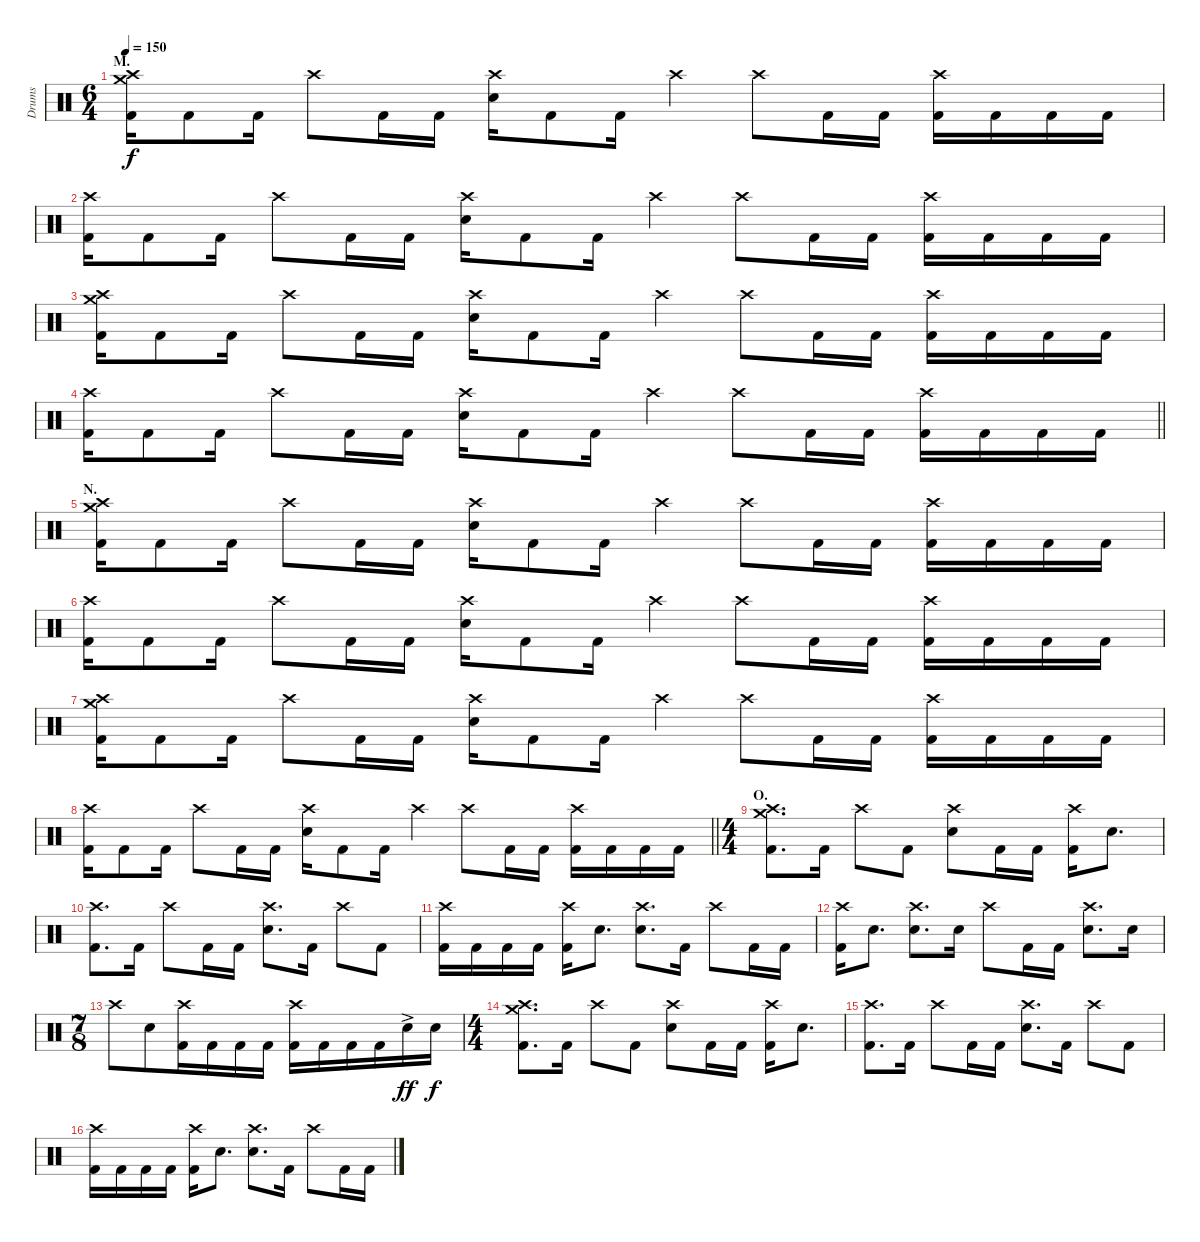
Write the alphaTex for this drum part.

\track ("Drums" "Drums") {instrument percussion}
\staff {score}
\articulation defaults
\ts (6 4)
\section ("" "M.")
\tempo 150
\clef neutral
\ks c
("Crash medium (hit)" "Crash high (hit)" "Kick (hit) 2").16{dy f} "Kick (hit) 2".8 "Kick (hit) 2".16 "Crash high (hit)".8 "Kick (hit) 2".16 "Kick (hit) 2".16 ("Crash high (hit)" "Electric Snare (hit)").16 "Kick (hit) 2".8 "Kick (hit) 2".16 "Crash high (hit)".4 "Crash high (hit)".8 "Kick (hit) 2".16 "Kick (hit) 2".16 ("Crash high (hit)" "Kick (hit) 2").16 "Kick (hit) 2".16 "Kick (hit) 2".16 "Kick (hit) 2".16 |
("Crash high (hit)" "Kick (hit) 2").16 "Kick (hit) 2".8 "Kick (hit) 2".16 "Crash high (hit)".8 "Kick (hit) 2".16 "Kick (hit) 2".16 ("Crash high (hit)" "Electric Snare (hit)").16 "Kick (hit) 2".8 "Kick (hit) 2".16 "Crash high (hit)".4 "Crash high (hit)".8 "Kick (hit) 2".16 "Kick (hit) 2".16 ("Crash high (hit)" "Kick (hit) 2").16 "Kick (hit) 2".16 "Kick (hit) 2".16 "Kick (hit) 2".16 |
("Crash medium (hit)" "Crash high (hit)" "Kick (hit) 2").16 "Kick (hit) 2".8 "Kick (hit) 2".16 "Crash high (hit)".8 "Kick (hit) 2".16 "Kick (hit) 2".16 ("Crash high (hit)" "Electric Snare (hit)").16 "Kick (hit) 2".8 "Kick (hit) 2".16 "Crash high (hit)".4 "Crash high (hit)".8 "Kick (hit) 2".16 "Kick (hit) 2".16 ("Crash high (hit)" "Kick (hit) 2").16 "Kick (hit) 2".16 "Kick (hit) 2".16 "Kick (hit) 2".16 |
\barLineRight lightlight
("Crash high (hit)" "Kick (hit) 2").16 "Kick (hit) 2".8 "Kick (hit) 2".16 "Crash high (hit)".8 "Kick (hit) 2".16 "Kick (hit) 2".16 ("Crash high (hit)" "Electric Snare (hit)").16 "Kick (hit) 2".8 "Kick (hit) 2".16 "Crash high (hit)".4 "Crash high (hit)".8 "Kick (hit) 2".16 "Kick (hit) 2".16 ("Crash high (hit)" "Kick (hit) 2").16 "Kick (hit) 2".16 "Kick (hit) 2".16 "Kick (hit) 2".16 |
\section ("" "N.")
("Crash medium (hit)" "Crash high (hit)" "Kick (hit) 2").16 "Kick (hit) 2".8 "Kick (hit) 2".16 "Crash high (hit)".8 "Kick (hit) 2".16 "Kick (hit) 2".16 ("Crash high (hit)" "Electric Snare (hit)").16 "Kick (hit) 2".8 "Kick (hit) 2".16 "Crash high (hit)".4 "Crash high (hit)".8 "Kick (hit) 2".16 "Kick (hit) 2".16 ("Crash high (hit)" "Kick (hit) 2").16 "Kick (hit) 2".16 "Kick (hit) 2".16 "Kick (hit) 2".16 |
("Crash high (hit)" "Kick (hit) 2").16 "Kick (hit) 2".8 "Kick (hit) 2".16 "Crash high (hit)".8 "Kick (hit) 2".16 "Kick (hit) 2".16 ("Crash high (hit)" "Electric Snare (hit)").16 "Kick (hit) 2".8 "Kick (hit) 2".16 "Crash high (hit)".4 "Crash high (hit)".8 "Kick (hit) 2".16 "Kick (hit) 2".16 ("Crash high (hit)" "Kick (hit) 2").16 "Kick (hit) 2".16 "Kick (hit) 2".16 "Kick (hit) 2".16 |
("Crash medium (hit)" "Crash high (hit)" "Kick (hit) 2").16 "Kick (hit) 2".8 "Kick (hit) 2".16 "Crash high (hit)".8 "Kick (hit) 2".16 "Kick (hit) 2".16 ("Crash high (hit)" "Electric Snare (hit)").16 "Kick (hit) 2".8 "Kick (hit) 2".16 "Crash high (hit)".4 "Crash high (hit)".8 "Kick (hit) 2".16 "Kick (hit) 2".16 ("Crash high (hit)" "Kick (hit) 2").16 "Kick (hit) 2".16 "Kick (hit) 2".16 "Kick (hit) 2".16 |
\barLineRight lightlight
("Crash high (hit)" "Kick (hit) 2").16 "Kick (hit) 2".8 "Kick (hit) 2".16 "Crash high (hit)".8 "Kick (hit) 2".16 "Kick (hit) 2".16 ("Crash high (hit)" "Electric Snare (hit)").16 "Kick (hit) 2".8 "Kick (hit) 2".16 "Crash high (hit)".4 "Crash high (hit)".8 "Kick (hit) 2".16 "Kick (hit) 2".16 ("Crash high (hit)" "Kick (hit) 2").16 "Kick (hit) 2".16 "Kick (hit) 2".16 "Kick (hit) 2".16 |
\ts (4 4)
\section ("" "O.")
("Crash medium (hit)" "Crash high (hit)" "Kick (hit) 2").8{d} "Kick (hit) 2".16 "Crash high (hit)".8 "Kick (hit) 2".8 ("Crash high (hit)" "Electric Snare (hit)").8 "Kick (hit) 2".16 "Kick (hit) 2".16 ("Crash high (hit)" "Kick (hit) 2").16 "Electric Snare (hit)".8{d} |
("Crash high (hit)" "Kick (hit) 2").8{d} "Kick (hit) 2".16 "Crash high (hit)".8 "Kick (hit) 2".16 "Kick (hit) 2".16 ("Crash high (hit)" "Electric Snare (hit)").8{d} "Kick (hit) 2".16 "Crash high (hit)".8 "Kick (hit) 2".8 |
("Crash high (hit)" "Kick (hit) 2").16 "Kick (hit) 2".16 "Kick (hit) 2".16 "Kick (hit) 2".16 ("Crash high (hit)" "Kick (hit) 2").16 "Electric Snare (hit)".8{d} ("Crash high (hit)" "Electric Snare (hit)").8{d} "Kick (hit) 2".16 "Crash high (hit)".8 "Kick (hit) 2".16 "Kick (hit) 2".16 |
("Crash high (hit)" "Kick (hit) 2").16 "Electric Snare (hit)".8{d} ("Crash high (hit)" "Electric Snare (hit)").8{d} "Electric Snare (hit)".16 "Crash high (hit)".8 "Kick (hit) 2".16 "Kick (hit) 2".16 ("Crash high (hit)" "Electric Snare (hit)").8{d} "Electric Snare (hit)".16 |
\ts (7 8)
"Crash high (hit)".8 "Electric Snare (hit)".8 ("Crash high (hit)" "Kick (hit) 2").16 "Kick (hit) 2".16 "Kick (hit) 2".16 "Kick (hit) 2".16 ("Crash high (hit)" "Kick (hit) 2").16 "Kick (hit) 2".16 "Kick (hit) 2".16 "Kick (hit) 2".16 "Electric Snare (hit)"{ac}.16{dy ff} "Electric Snare (hit)".16{dy f} |
\ts (4 4)
("Crash medium (hit)" "Crash high (hit)" "Kick (hit) 2").8{d} "Kick (hit) 2".16 "Crash high (hit)".8 "Kick (hit) 2".8 ("Crash high (hit)" "Electric Snare (hit)").8 "Kick (hit) 2".16 "Kick (hit) 2".16 ("Crash high (hit)" "Kick (hit) 2").16 "Electric Snare (hit)".8{d} |
("Crash high (hit)" "Kick (hit) 2").8{d} "Kick (hit) 2".16 "Crash high (hit)".8 "Kick (hit) 2".16 "Kick (hit) 2".16 ("Crash high (hit)" "Electric Snare (hit)").8{d} "Kick (hit) 2".16 "Crash high (hit)".8 "Kick (hit) 2".8 |
("Crash high (hit)" "Kick (hit) 2").16 "Kick (hit) 2".16 "Kick (hit) 2".16 "Kick (hit) 2".16 ("Crash high (hit)" "Kick (hit) 2").16 "Electric Snare (hit)".8{d} ("Crash high (hit)" "Electric Snare (hit)").8{d} "Kick (hit) 2".16 "Crash high (hit)".8 "Kick (hit) 2".16 "Kick (hit) 2".16
